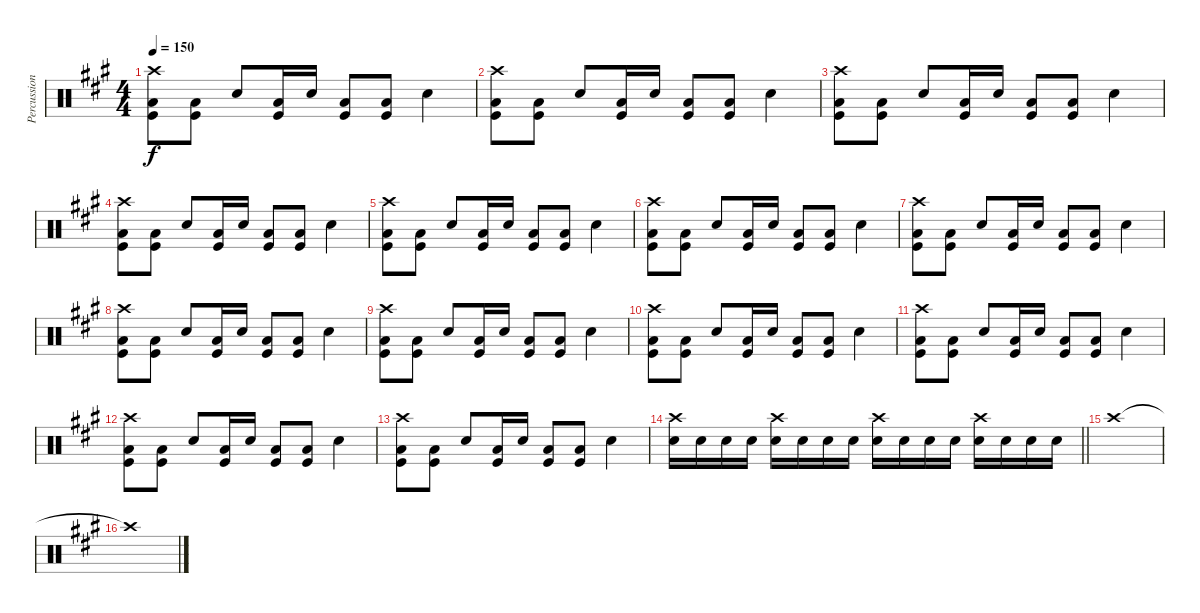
\track ("Percussion" "Percussion") {instrument percussion}
\staff {score}
\articulation defaults
\ts (4 4)
\tempo 150
\clef neutral
\ks a
("Kick (hit)" "Low Tom (hit)" "Crash high (hit)").8{dy f} ("Kick (hit)" "Low Tom (hit)").8 "Snare (hit) 2".8 ("Kick (hit)" "Low Tom (hit)").16 "Snare (hit) 2".16 ("Kick (hit)" "Low Tom (hit)").8 ("Kick (hit)" "Low Tom (hit)").8 "Snare (hit) 2".4 |
("Kick (hit)" "Low Tom (hit)" "Crash high (hit)").8 ("Kick (hit)" "Low Tom (hit)").8 "Snare (hit) 2".8 ("Kick (hit)" "Low Tom (hit)").16 "Snare (hit) 2".16 ("Kick (hit)" "Low Tom (hit)").8 ("Kick (hit)" "Low Tom (hit)").8 "Snare (hit) 2".4 |
("Kick (hit)" "Low Tom (hit)" "Crash high (hit)").8 ("Kick (hit)" "Low Tom (hit)").8 "Snare (hit) 2".8 ("Kick (hit)" "Low Tom (hit)").16 "Snare (hit) 2".16 ("Kick (hit)" "Low Tom (hit)").8 ("Kick (hit)" "Low Tom (hit)").8 "Snare (hit) 2".4 |
("Kick (hit)" "Low Tom (hit)" "Crash high (hit)").8 ("Kick (hit)" "Low Tom (hit)").8 "Snare (hit) 2".8 ("Kick (hit)" "Low Tom (hit)").16 "Snare (hit) 2".16 ("Kick (hit)" "Low Tom (hit)").8 ("Kick (hit)" "Low Tom (hit)").8 "Snare (hit) 2".4 |
("Kick (hit)" "Low Tom (hit)" "Crash high (hit)").8 ("Kick (hit)" "Low Tom (hit)").8 "Snare (hit) 2".8 ("Kick (hit)" "Low Tom (hit)").16 "Snare (hit) 2".16 ("Kick (hit)" "Low Tom (hit)").8 ("Kick (hit)" "Low Tom (hit)").8 "Snare (hit) 2".4 |
("Kick (hit)" "Low Tom (hit)" "Crash high (hit)").8 ("Kick (hit)" "Low Tom (hit)").8 "Snare (hit) 2".8 ("Kick (hit)" "Low Tom (hit)").16 "Snare (hit) 2".16 ("Kick (hit)" "Low Tom (hit)").8 ("Kick (hit)" "Low Tom (hit)").8 "Snare (hit) 2".4 |
("Kick (hit)" "Low Tom (hit)" "Crash high (hit)").8 ("Kick (hit)" "Low Tom (hit)").8 "Snare (hit) 2".8 ("Kick (hit)" "Low Tom (hit)").16 "Snare (hit) 2".16 ("Kick (hit)" "Low Tom (hit)").8 ("Kick (hit)" "Low Tom (hit)").8 "Snare (hit) 2".4 |
("Kick (hit)" "Low Tom (hit)" "Crash high (hit)").8 ("Kick (hit)" "Low Tom (hit)").8 "Snare (hit) 2".8 ("Kick (hit)" "Low Tom (hit)").16 "Snare (hit) 2".16 ("Kick (hit)" "Low Tom (hit)").8 ("Kick (hit)" "Low Tom (hit)").8 "Snare (hit) 2".4 |
("Kick (hit)" "Low Tom (hit)" "Crash high (hit)").8 ("Kick (hit)" "Low Tom (hit)").8 "Snare (hit) 2".8 ("Kick (hit)" "Low Tom (hit)").16 "Snare (hit) 2".16 ("Kick (hit)" "Low Tom (hit)").8 ("Kick (hit)" "Low Tom (hit)").8 "Snare (hit) 2".4 |
("Kick (hit)" "Low Tom (hit)" "Crash high (hit)").8 ("Kick (hit)" "Low Tom (hit)").8 "Snare (hit) 2".8 ("Kick (hit)" "Low Tom (hit)").16 "Snare (hit) 2".16 ("Kick (hit)" "Low Tom (hit)").8 ("Kick (hit)" "Low Tom (hit)").8 "Snare (hit) 2".4 |
("Kick (hit)" "Low Tom (hit)" "Crash high (hit)").8 ("Kick (hit)" "Low Tom (hit)").8 "Snare (hit) 2".8 ("Kick (hit)" "Low Tom (hit)").16 "Snare (hit) 2".16 ("Kick (hit)" "Low Tom (hit)").8 ("Kick (hit)" "Low Tom (hit)").8 "Snare (hit) 2".4 |
("Kick (hit)" "Low Tom (hit)" "Crash high (hit)").8 ("Kick (hit)" "Low Tom (hit)").8 "Snare (hit) 2".8 ("Kick (hit)" "Low Tom (hit)").16 "Snare (hit) 2".16 ("Kick (hit)" "Low Tom (hit)").8 ("Kick (hit)" "Low Tom (hit)").8 "Snare (hit) 2".4 |
("Kick (hit)" "Low Tom (hit)" "Crash high (hit)").8 ("Kick (hit)" "Low Tom (hit)").8 "Snare (hit) 2".8 ("Kick (hit)" "Low Tom (hit)").16 "Snare (hit) 2".16 ("Kick (hit)" "Low Tom (hit)").8 ("Kick (hit)" "Low Tom (hit)").8 "Snare (hit) 2".4 |
\barLineRight lightlight
("Snare (hit) 2" "Crash high (hit)").16 "Snare (hit) 2".16 "Snare (hit) 2".16 "Snare (hit) 2".16 ("Snare (hit) 2" "Crash high (hit)").16 "Snare (hit) 2".16 "Snare (hit) 2".16 "Snare (hit) 2".16 ("Snare (hit) 2" "Crash high (hit)").16 "Snare (hit) 2".16 "Snare (hit) 2".16 "Snare (hit) 2".16 ("Snare (hit) 2" "Crash high (hit)").16 "Snare (hit) 2".16 "Snare (hit) 2".16 "Snare (hit) 2".16 |
"Crash high (hit)".1 |
"Crash high (hit)"{t}.1
